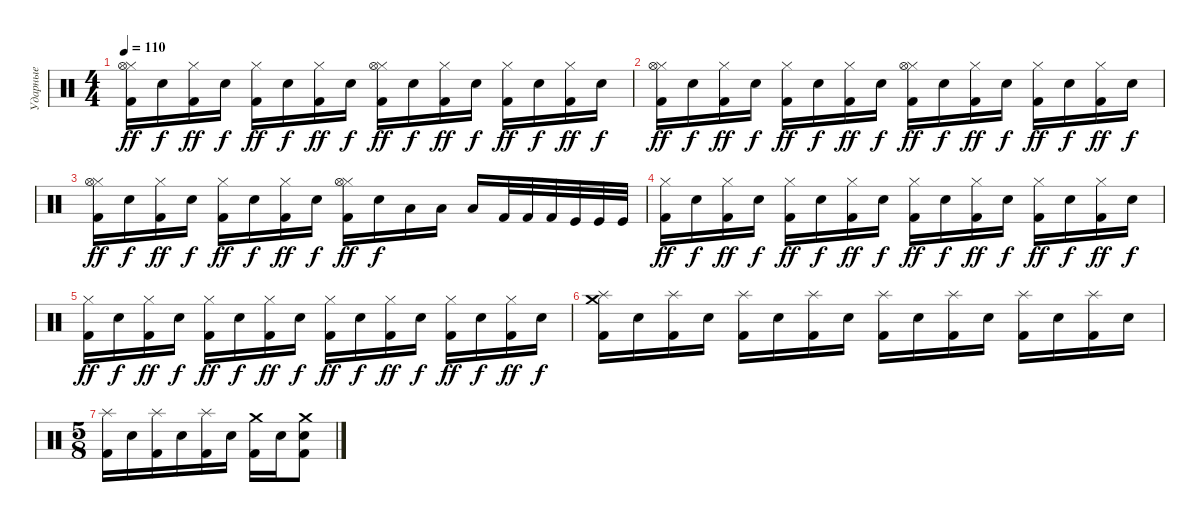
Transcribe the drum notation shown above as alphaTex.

\track ("Ударные" "Ударные") {instrument percussion}
\staff {score}
\articulation defaults
\ts (4 4)
\tempo 110
\clef neutral
\ks c
("Hi-Hat (closed)" "Hi-Hat (open)" "Kick (hit) 2").16{dy ff} "Electric Snare (hit)".16{dy f} ("Hi-Hat (closed)" "Kick (hit) 2").16{dy ff} "Electric Snare (hit)".16{dy f} ("Hi-Hat (closed)" "Kick (hit) 2").16{dy ff} "Electric Snare (hit)".16{dy f} ("Hi-Hat (closed)" "Kick (hit) 2").16{dy ff} "Electric Snare (hit)".16{dy f} ("Hi-Hat (closed)" "Hi-Hat (open)" "Kick (hit) 2").16{dy ff} "Electric Snare (hit)".16{dy f} ("Hi-Hat (closed)" "Kick (hit) 2").16{dy ff} "Electric Snare (hit)".16{dy f} ("Hi-Hat (closed)" "Kick (hit) 2").16{dy ff} "Electric Snare (hit)".16{dy f} ("Hi-Hat (closed)" "Kick (hit) 2").16{dy ff} "Electric Snare (hit)".16{dy f} |
("Hi-Hat (closed)" "Hi-Hat (open)" "Kick (hit) 2").16{dy ff} "Electric Snare (hit)".16{dy f} ("Hi-Hat (closed)" "Kick (hit) 2").16{dy ff} "Electric Snare (hit)".16{dy f} ("Hi-Hat (closed)" "Kick (hit) 2").16{dy ff} "Electric Snare (hit)".16{dy f} ("Hi-Hat (closed)" "Kick (hit) 2").16{dy ff} "Electric Snare (hit)".16{dy f} ("Hi-Hat (closed)" "Hi-Hat (open)" "Kick (hit) 2").16{dy ff} "Electric Snare (hit)".16{dy f} ("Hi-Hat (closed)" "Kick (hit) 2").16{dy ff} "Electric Snare (hit)".16{dy f} ("Hi-Hat (closed)" "Kick (hit) 2").16{dy ff} "Electric Snare (hit)".16{dy f} ("Hi-Hat (closed)" "Kick (hit) 2").16{dy ff} "Electric Snare (hit)".16{dy f} |
("Hi-Hat (closed)" "Hi-Hat (open)" "Kick (hit) 2").16{dy ff} "Electric Snare (hit)".16{dy f} ("Hi-Hat (closed)" "Kick (hit) 2").16{dy ff} "Electric Snare (hit)".16{dy f} ("Hi-Hat (closed)" "Kick (hit) 2").16{dy ff} "Electric Snare (hit)".16{dy f} ("Hi-Hat (closed)" "Kick (hit) 2").16{dy ff} "Electric Snare (hit)".16{dy f} ("Hi-Hat (closed)" "Hi-Hat (open)" "Kick (hit) 2").16{dy ff} "Electric Snare (hit)".16{dy f} "Low Tom (hit)".16 "Low Tom (hit)".16 "Low Tom (hit)".16 "Kick (hit) 2".32 "Kick (hit) 2".32 "Kick (hit) 2".32 "Kick (hit)".32 "Kick (hit)".32 "Kick (hit)".32 |
("Hi-Hat (closed)" "Kick (hit) 2").16{dy ff} "Electric Snare (hit)".16{dy f} ("Hi-Hat (closed)" "Kick (hit) 2").16{dy ff} "Electric Snare (hit)".16{dy f} ("Hi-Hat (closed)" "Kick (hit) 2").16{dy ff} "Electric Snare (hit)".16{dy f} ("Hi-Hat (closed)" "Kick (hit) 2").16{dy ff} "Electric Snare (hit)".16{dy f} ("Hi-Hat (closed)" "Kick (hit) 2").16{dy ff} "Electric Snare (hit)".16{dy f} ("Hi-Hat (closed)" "Kick (hit) 2").16{dy ff} "Electric Snare (hit)".16{dy f} ("Hi-Hat (closed)" "Kick (hit) 2").16{dy ff} "Electric Snare (hit)".16{dy f} ("Hi-Hat (closed)" "Kick (hit) 2").16{dy ff} "Electric Snare (hit)".16{dy f} |
("Hi-Hat (closed)" "Kick (hit) 2").16{dy ff} "Electric Snare (hit)".16{dy f} ("Hi-Hat (closed)" "Kick (hit) 2").16{dy ff} "Electric Snare (hit)".16{dy f} ("Hi-Hat (closed)" "Kick (hit) 2").16{dy ff} "Electric Snare (hit)".16{dy f} ("Hi-Hat (closed)" "Kick (hit) 2").16{dy ff} "Electric Snare (hit)".16{dy f} ("Hi-Hat (closed)" "Kick (hit) 2").16{dy ff} "Electric Snare (hit)".16{dy f} ("Hi-Hat (closed)" "Kick (hit) 2").16{dy ff} "Electric Snare (hit)".16{dy f} ("Hi-Hat (closed)" "Kick (hit) 2").16{dy ff} "Electric Snare (hit)".16{dy f} ("Hi-Hat (closed)" "Kick (hit) 2").16{dy ff} "Electric Snare (hit)".16{dy f} |
("Splash (hit)" "Crash medium (hit)" "Kick (hit) 2").16 "Electric Snare (hit)".16 ("Splash (hit)" "Kick (hit) 2").16 "Electric Snare (hit)".16 ("Splash (hit)" "Kick (hit) 2").16 "Electric Snare (hit)".16 ("Splash (hit)" "Kick (hit) 2").16 "Electric Snare (hit)".16 ("Splash (hit)" "Kick (hit) 2").16 "Electric Snare (hit)".16 ("Splash (hit)" "Kick (hit) 2").16 "Electric Snare (hit)".16 ("Splash (hit)" "Kick (hit) 2").16 "Electric Snare (hit)".16 ("Splash (hit)" "Kick (hit) 2").16 "Electric Snare (hit)".16 |
\ts (5 8)
("Splash (hit)" "Kick (hit) 2").16 "Electric Snare (hit)".16 ("Splash (hit)" "Kick (hit) 2").16 "Electric Snare (hit)".16 ("Splash (hit)" "Kick (hit) 2").16 "Electric Snare (hit)".16 ("Crash medium (hit)" "Kick (hit) 2").16 "Electric Snare (hit)".16 ("Crash medium (hit)" "Electric Snare (hit)" "Kick (hit) 2").8
